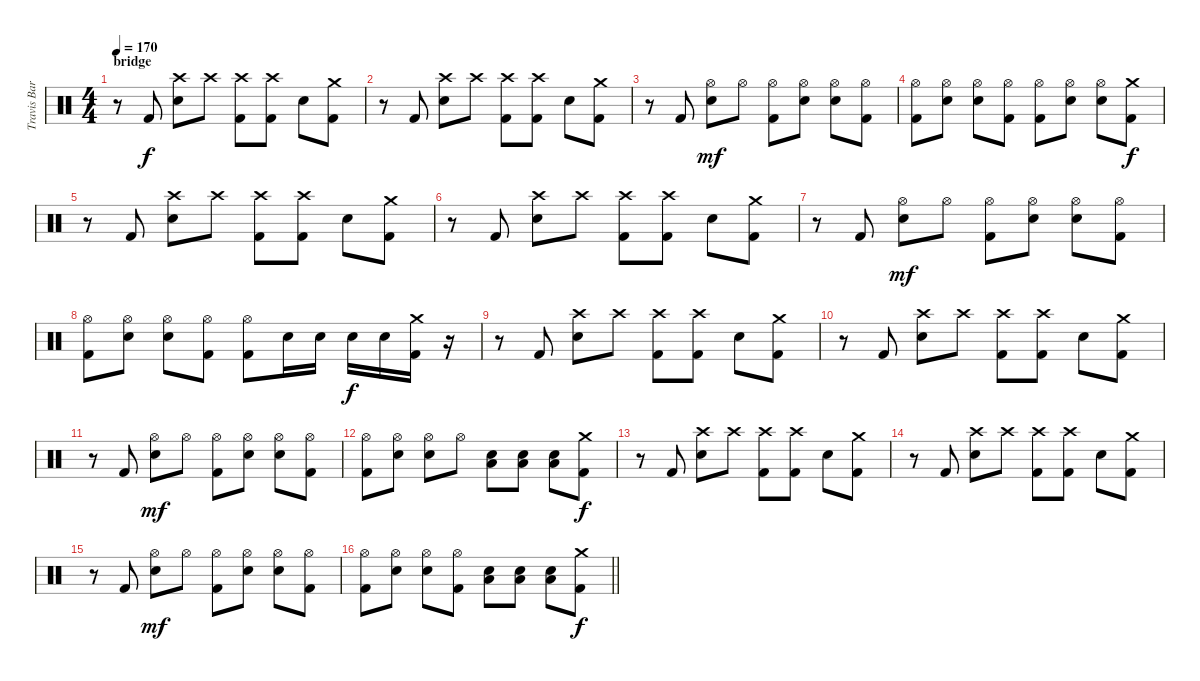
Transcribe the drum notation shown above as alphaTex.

\track ("Travis Barker" "Travis Bar") {instrument percussion}
\staff {score}
\articulation defaults
\ts (4 4)
\section ("" "bridge")
\tempo 170
\clef neutral
\ks c
r.8{dy f} "Kick (hit) 2".8 ("Crash high (hit)" "Electric Snare (hit)").8 "Crash high (hit)".8 ("Crash high (hit)" "Kick (hit) 2").8 ("Crash high (hit)" "Kick (hit) 2").8 "Electric Snare (hit)".8 ("Crash medium (hit)" "Kick (hit) 2").8 |
r.8 "Kick (hit) 2".8 ("Crash high (hit)" "Electric Snare (hit)").8 "Crash high (hit)".8 ("Crash high (hit)" "Kick (hit) 2").8 ("Crash high (hit)" "Kick (hit) 2").8 "Electric Snare (hit)".8 ("Crash medium (hit)" "Kick (hit) 2").8 |
r.8 "Kick (hit) 2".8 ("Hi-Hat (open)" "Electric Snare (hit)").8{dy mf} "Hi-Hat (open)".8 ("Hi-Hat (open)" "Kick (hit) 2").8 ("Hi-Hat (open)" "Electric Snare (hit)").8 ("Hi-Hat (open)" "Electric Snare (hit)").8 ("Hi-Hat (open)" "Kick (hit) 2").8 |
("Hi-Hat (open)" "Kick (hit) 2").8 ("Hi-Hat (open)" "Electric Snare (hit)").8 ("Hi-Hat (open)" "Electric Snare (hit)").8 ("Hi-Hat (open)" "Kick (hit) 2").8 ("Hi-Hat (open)" "Kick (hit) 2").8 ("Hi-Hat (open)" "Electric Snare (hit)").8 ("Hi-Hat (open)" "Electric Snare (hit)").8 ("Crash medium (hit)" "Kick (hit) 2").8{dy f} |
r.8 "Kick (hit) 2".8 ("Crash high (hit)" "Electric Snare (hit)").8 "Crash high (hit)".8 ("Crash high (hit)" "Kick (hit) 2").8 ("Crash high (hit)" "Kick (hit) 2").8 "Electric Snare (hit)".8 ("Crash medium (hit)" "Kick (hit) 2").8 |
r.8 "Kick (hit) 2".8 ("Crash high (hit)" "Electric Snare (hit)").8 "Crash high (hit)".8 ("Crash high (hit)" "Kick (hit) 2").8 ("Crash high (hit)" "Kick (hit) 2").8 "Electric Snare (hit)".8 ("Crash medium (hit)" "Kick (hit) 2").8 |
r.8 "Kick (hit) 2".8 ("Hi-Hat (open)" "Electric Snare (hit)").8{dy mf} "Hi-Hat (open)".8 ("Hi-Hat (open)" "Kick (hit) 2").8 ("Hi-Hat (open)" "Electric Snare (hit)").8 ("Hi-Hat (open)" "Electric Snare (hit)").8 ("Hi-Hat (open)" "Kick (hit) 2").8 |
("Hi-Hat (open)" "Kick (hit) 2").8 ("Hi-Hat (open)" "Electric Snare (hit)").8 ("Hi-Hat (open)" "Electric Snare (hit)").8 ("Hi-Hat (open)" "Kick (hit) 2").8 ("Hi-Hat (open)" "Kick (hit) 2").8 "Electric Snare (hit)".16 "Electric Snare (hit)".16 "Electric Snare (hit)".16{dy f} "Electric Snare (hit)".16 ("Crash medium (hit)" "Kick (hit) 2").16 r.16 |
r.8 "Kick (hit) 2".8 ("Crash high (hit)" "Electric Snare (hit)").8 "Crash high (hit)".8 ("Crash high (hit)" "Kick (hit) 2").8 ("Crash high (hit)" "Kick (hit) 2").8 "Electric Snare (hit)".8 ("Crash medium (hit)" "Kick (hit) 2").8 |
r.8 "Kick (hit) 2".8 ("Crash high (hit)" "Electric Snare (hit)").8 "Crash high (hit)".8 ("Crash high (hit)" "Kick (hit) 2").8 ("Crash high (hit)" "Kick (hit) 2").8 "Electric Snare (hit)".8 ("Crash medium (hit)" "Kick (hit) 2").8 |
r.8 "Kick (hit) 2".8 ("Hi-Hat (open)" "Electric Snare (hit)").8{dy mf} "Hi-Hat (open)".8 ("Hi-Hat (open)" "Kick (hit) 2").8 ("Hi-Hat (open)" "Electric Snare (hit)").8 ("Hi-Hat (open)" "Electric Snare (hit)").8 ("Hi-Hat (open)" "Kick (hit) 2").8 |
("Hi-Hat (open)" "Kick (hit) 2").8 ("Hi-Hat (open)" "Electric Snare (hit)").8 ("Hi-Hat (open)" "Electric Snare (hit)").8 "Hi-Hat (open)".8 ("Electric Snare (hit)" "Low Floor Tom (hit)").8 ("Electric Snare (hit)" "Low Floor Tom (hit)").8 ("Electric Snare (hit)" "Low Floor Tom (hit)").8 ("Crash medium (hit)" "Kick (hit) 2").8{dy f} |
r.8 "Kick (hit) 2".8 ("Crash high (hit)" "Electric Snare (hit)").8 "Crash high (hit)".8 ("Crash high (hit)" "Kick (hit) 2").8 ("Crash high (hit)" "Kick (hit) 2").8 "Electric Snare (hit)".8 ("Crash medium (hit)" "Kick (hit) 2").8 |
r.8 "Kick (hit) 2".8 ("Crash high (hit)" "Electric Snare (hit)").8 "Crash high (hit)".8 ("Crash high (hit)" "Kick (hit) 2").8 ("Crash high (hit)" "Kick (hit) 2").8 "Electric Snare (hit)".8 ("Crash medium (hit)" "Kick (hit) 2").8 |
r.8 "Kick (hit) 2".8 ("Hi-Hat (open)" "Electric Snare (hit)").8{dy mf} "Hi-Hat (open)".8 ("Hi-Hat (open)" "Kick (hit) 2").8 ("Hi-Hat (open)" "Electric Snare (hit)").8 ("Hi-Hat (open)" "Electric Snare (hit)").8 ("Hi-Hat (open)" "Kick (hit) 2").8 |
\barLineRight lightlight
("Hi-Hat (open)" "Kick (hit) 2").8 ("Hi-Hat (open)" "Electric Snare (hit)").8 ("Hi-Hat (open)" "Electric Snare (hit)").8 ("Hi-Hat (open)" "Kick (hit) 2").8 ("Electric Snare (hit)" "Low Floor Tom (hit)").8 ("Electric Snare (hit)" "Low Floor Tom (hit)").8 ("Electric Snare (hit)" "Low Floor Tom (hit)").8 ("Crash medium (hit)" "Kick (hit) 2").8{dy f}
